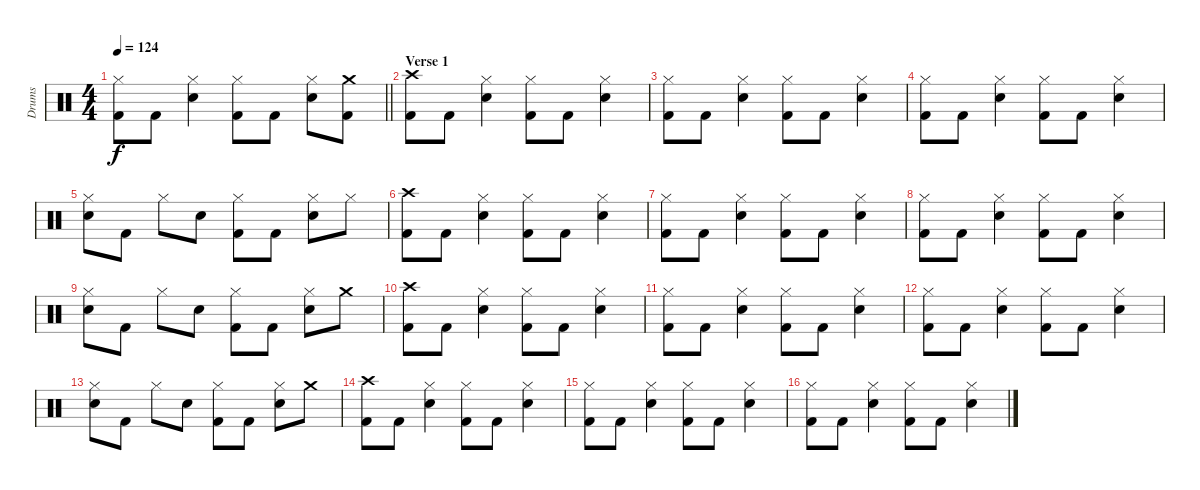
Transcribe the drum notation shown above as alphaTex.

\track ("Drums" "Drums") {instrument percussion}
\staff {score}
\articulation defaults
\ts (4 4)
\tempo 124
\clef neutral
\barLineRight lightlight
\ks c
("Kick (hit) 2" "Hi-Hat (closed)").8{dy f} "Kick (hit) 2".8 ("Snare (hit) 2" "Hi-Hat (closed)").4 ("Kick (hit) 2" "Hi-Hat (closed)").8 "Kick (hit) 2".8 ("Snare (hit) 2" "Hi-Hat (closed)").8 ("Kick (hit) 2" "Crash medium (hit)").8 |
\section ("" "Verse 1")
("Kick (hit) 2" "Crash high (hit)").8 "Kick (hit) 2".8 ("Snare (hit) 2" "Hi-Hat (closed)").4 ("Kick (hit) 2" "Hi-Hat (closed)").8 "Kick (hit) 2".8 ("Snare (hit) 2" "Hi-Hat (closed)").4 |
("Kick (hit) 2" "Hi-Hat (closed)").8 "Kick (hit) 2".8 ("Snare (hit) 2" "Hi-Hat (closed)").4 ("Kick (hit) 2" "Hi-Hat (closed)").8 "Kick (hit) 2".8 ("Snare (hit) 2" "Hi-Hat (closed)").4 |
("Kick (hit) 2" "Hi-Hat (closed)").8 "Kick (hit) 2".8 ("Snare (hit) 2" "Hi-Hat (closed)").4 ("Kick (hit) 2" "Hi-Hat (closed)").8 "Kick (hit) 2".8 ("Snare (hit) 2" "Hi-Hat (closed)").4 |
("Snare (hit) 2" "Hi-Hat (closed)").8 "Kick (hit) 2".8 "Hi-Hat (closed)".8 "Snare (hit) 2".8 ("Kick (hit) 2" "Hi-Hat (closed)").8 "Kick (hit) 2".8 ("Snare (hit) 2" "Hi-Hat (closed)").8 "Hi-Hat (closed)".8 |
("Kick (hit) 2" "Crash high (hit)").8 "Kick (hit) 2".8 ("Snare (hit) 2" "Hi-Hat (closed)").4 ("Kick (hit) 2" "Hi-Hat (closed)").8 "Kick (hit) 2".8 ("Snare (hit) 2" "Hi-Hat (closed)").4 |
("Kick (hit) 2" "Hi-Hat (closed)").8 "Kick (hit) 2".8 ("Snare (hit) 2" "Hi-Hat (closed)").4 ("Kick (hit) 2" "Hi-Hat (closed)").8 "Kick (hit) 2".8 ("Snare (hit) 2" "Hi-Hat (closed)").4 |
("Kick (hit) 2" "Hi-Hat (closed)").8 "Kick (hit) 2".8 ("Snare (hit) 2" "Hi-Hat (closed)").4 ("Kick (hit) 2" "Hi-Hat (closed)").8 "Kick (hit) 2".8 ("Snare (hit) 2" "Hi-Hat (closed)").4 |
("Snare (hit) 2" "Hi-Hat (closed)").8 "Kick (hit) 2".8 "Hi-Hat (closed)".8 "Snare (hit) 2".8 ("Kick (hit) 2" "Hi-Hat (closed)").8 "Kick (hit) 2".8 ("Snare (hit) 2" "Hi-Hat (closed)").8 "Crash medium (hit)".8 |
("Kick (hit) 2" "Crash high (hit)").8 "Kick (hit) 2".8 ("Snare (hit) 2" "Hi-Hat (closed)").4 ("Kick (hit) 2" "Hi-Hat (closed)").8 "Kick (hit) 2".8 ("Snare (hit) 2" "Hi-Hat (closed)").4 |
("Kick (hit) 2" "Hi-Hat (closed)").8 "Kick (hit) 2".8 ("Snare (hit) 2" "Hi-Hat (closed)").4 ("Kick (hit) 2" "Hi-Hat (closed)").8 "Kick (hit) 2".8 ("Snare (hit) 2" "Hi-Hat (closed)").4 |
("Kick (hit) 2" "Hi-Hat (closed)").8 "Kick (hit) 2".8 ("Snare (hit) 2" "Hi-Hat (closed)").4 ("Kick (hit) 2" "Hi-Hat (closed)").8 "Kick (hit) 2".8 ("Snare (hit) 2" "Hi-Hat (closed)").4 |
("Snare (hit) 2" "Hi-Hat (closed)").8 "Kick (hit) 2".8 "Hi-Hat (closed)".8 "Snare (hit) 2".8 ("Kick (hit) 2" "Hi-Hat (closed)").8 "Kick (hit) 2".8 ("Snare (hit) 2" "Hi-Hat (closed)").8 "Crash medium (hit)".8 |
("Kick (hit) 2" "Crash high (hit)").8 "Kick (hit) 2".8 ("Snare (hit) 2" "Hi-Hat (closed)").4 ("Kick (hit) 2" "Hi-Hat (closed)").8 "Kick (hit) 2".8 ("Snare (hit) 2" "Hi-Hat (closed)").4 |
("Kick (hit) 2" "Hi-Hat (closed)").8 "Kick (hit) 2".8 ("Snare (hit) 2" "Hi-Hat (closed)").4 ("Kick (hit) 2" "Hi-Hat (closed)").8 "Kick (hit) 2".8 ("Snare (hit) 2" "Hi-Hat (closed)").4 |
("Kick (hit) 2" "Hi-Hat (closed)").8 "Kick (hit) 2".8 ("Snare (hit) 2" "Hi-Hat (closed)").4 ("Kick (hit) 2" "Hi-Hat (closed)").8 "Kick (hit) 2".8 ("Snare (hit) 2" "Hi-Hat (closed)").4
